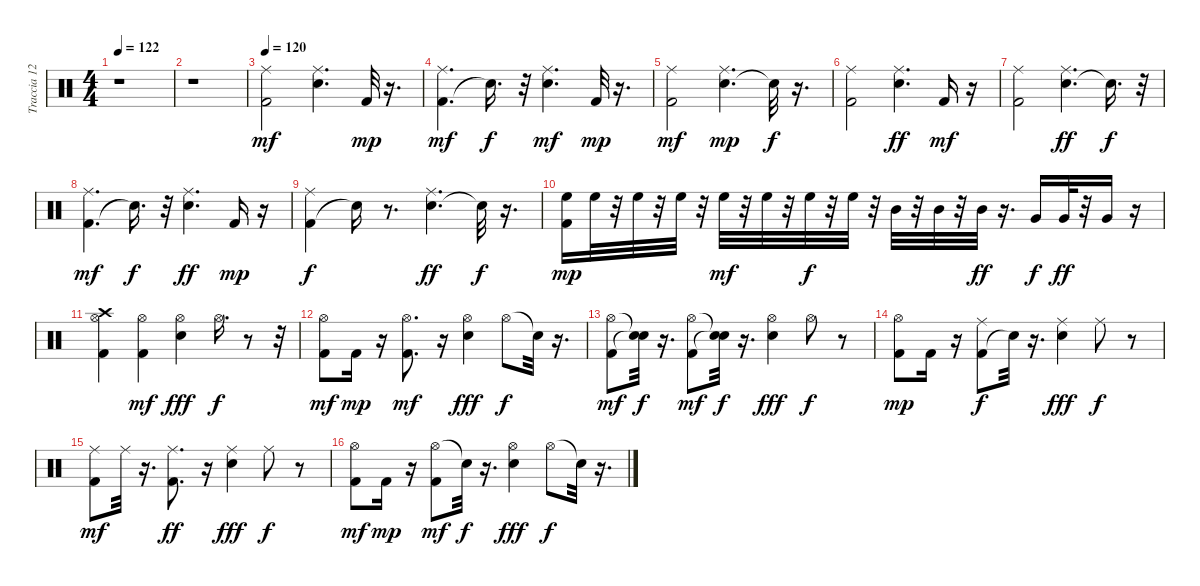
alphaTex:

\track ("Traccia 12-13-14-15-16-17-18" "Traccia 12") {instrument percussion}
\staff {score}
\articulation defaults
\ts (4 4)
\tempo 122
\clef neutral
\ks c
r.1{dy f} |
r.1 |
\tempo 120
("Kick (hit) 2" "Ride (middle)").2{dy mf} ("Electric Snare (hit)" "Ride (middle)").4{d} "Kick (hit) 2".32{dy mp} r.16{d} |
("Kick (hit) 2" "Ride (middle)").4{d dy mf} "Snare (hit)"{t}.16{d dy f} r.32 ("Electric Snare (hit)" "Ride (middle)").4{d dy mf} "Kick (hit) 2".32{dy mp} r.16{d} |
("Kick (hit) 2" "Ride (middle)").2{dy mf} ("Electric Snare (hit)" "Ride (middle)").4{d dy mp} "Snare (hit)"{t}.32{dy f} r.16{d} |
("Kick (hit) 2" "Ride (middle)").2 ("Electric Snare (hit)" "Ride (middle)").4{d dy ff} "Kick (hit) 2".16{dy mf} r.16 |
("Kick (hit) 2" "Ride (middle)").2 ("Electric Snare (hit)" "Ride (middle)").4{d dy ff} "Snare (hit)"{t}.16{d dy f} r.32 |
("Kick (hit) 2" "Ride (middle)").4{d dy mf} "Snare (hit)"{t}.16{d dy f} r.32 ("Electric Snare (hit)" "Ride (middle)").4{d dy ff} "Kick (hit) 2".16{dy mp} r.16 |
("Kick (hit) 2" "Ride (middle)").4{dy f} "Snare (hit)"{t}.16 r.8{d} ("Electric Snare (hit)" "Ride (middle)").4{d dy ff} "Snare (hit)"{t}.32{dy f} r.16{d} |
("High Floor Tom (hit)" "Kick (hit) 2").16{dy mp} "High Floor Tom (hit)".32 r.32 "High Floor Tom (hit)".32 r.32 "High Floor Tom (hit)".32 r.32 "High Floor Tom (hit)".32{dy mf} r.32 "High Floor Tom (hit)".32 r.32 "High Floor Tom (hit)".32{dy f} r.32 "High Floor Tom (hit)".32 r.32 "Mid Tom (hit)".32 r.32 "Mid Tom (hit)".32 r.32 "Mid Tom (hit)".32{dy ff} r.16{d} "Very Low Tom (hit)".16{dy f} "Very Low Tom (hit)".32{dy ff} r.32 "Very Low Tom (hit)".16 r.16 |
("Hi-Hat (open)" "Kick (hit) 2" "Crash high (hit)").4 ("Hi-Hat (open)" "Kick (hit) 2").4{dy mf} ("Hi-Hat (open)" "Electric Snare (hit)").4{dy fff} "Hi-Hat (open)".16{d dy f} r.8 r.32 |
("Hi-Hat (open)" "Kick (hit) 2").8{dy mf} "Kick (hit) 2".16{dy mp} r.16 ("Hi-Hat (open)" "Kick (hit) 2").8{d dy mf} r.16 ("Hi-Hat (open)" "Electric Snare (hit)").4{dy fff} "Hi-Hat (open)".8{dy f} "Snare (hit)"{t}.32 r.16{d} |
("Hi-Hat (open)" "Kick (hit) 2").8{dy mf} ("Snare (hit)"{t} "Snare (hit)"{t}).32{dy f} r.16{d} ("Hi-Hat (open)" "Kick (hit) 2").8{dy mf} ("Snare (hit)"{t} "Snare (hit)"{t}).32{dy f} r.16{d} ("Hi-Hat (open)" "Electric Snare (hit)").4{dy fff} "Hi-Hat (open)".8{dy f} r.8 |
("Hi-Hat (open)" "Kick (hit) 2").8{dy mp} "Kick (hit) 2".16 r.16 ("Kick (hit) 2" "Ride (middle)").8{dy f} "Snare (hit)"{t}.32 r.16{d} ("Electric Snare (hit)" "Ride (middle)").4{dy fff} "Ride (middle)".8{dy f} r.8 |
("Kick (hit) 2" "Ride (middle)").8{dy mf} "Ride (middle)".32 r.16{d} ("Kick (hit) 2" "Ride (middle)").8{d dy ff} r.16 ("Electric Snare (hit)" "Ride (middle)").4{dy fff} "Ride (middle)".8{dy f} r.8 |
("Hi-Hat (open)" "Kick (hit) 2").8{dy mf} "Kick (hit) 2".16{dy mp} r.16 ("Hi-Hat (open)" "Kick (hit) 2").8{dy mf} "Snare (hit)"{t}.32{dy f} r.16{d} ("Hi-Hat (open)" "Electric Snare (hit)").4{dy fff} "Hi-Hat (open)".8{dy f} "Snare (hit)"{t}.32 r.16{d}
